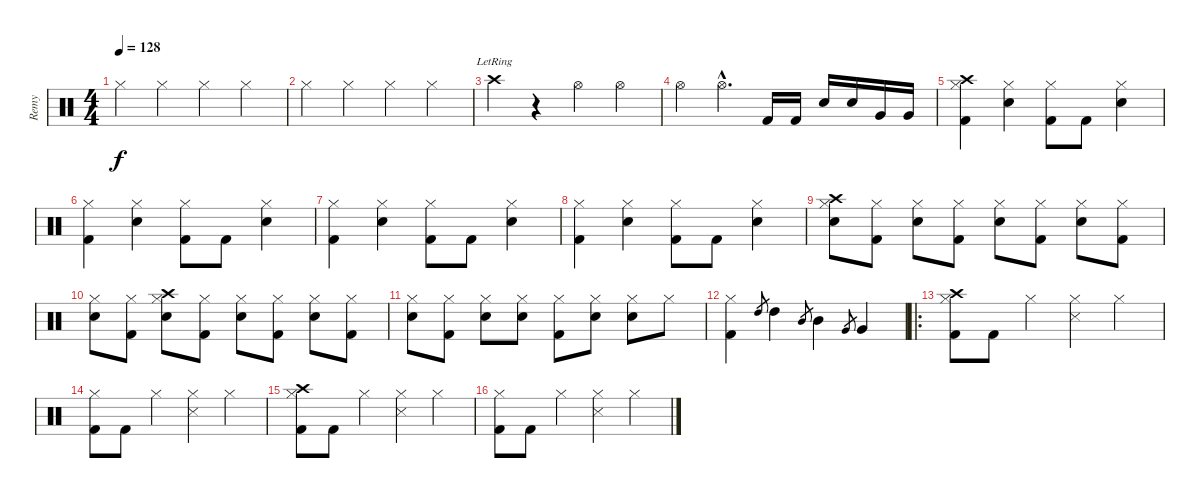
\track ("Remy" "Remy") {instrument percussion}
\staff {score}
\articulation defaults
\ts (4 4)
\tempo 128
\clef neutral
\ks c "Hi-Hat (closed)".4{dy f} "Hi-Hat (closed)".4 "Hi-Hat (closed)".4 "Hi-Hat (closed)".4
|
"Hi-Hat (closed)".4 "Hi-Hat (closed)".4 "Hi-Hat (closed)".4 "Hi-Hat (closed)".4 |
"Crash high (hit)"{lr}.4 r.4 "Hi-Hat (open)".4 "Hi-Hat (open)".4 |
"Hi-Hat (open)".4 "Hi-Hat (open)"{hac}.4{d} "Kick (hit) 2".16 "Kick (hit) 2".16 "Snare (hit) 2".16 "Snare (hit) 2".16 "Very Low Tom (hit)".16 "Very Low Tom (hit)".16 |
("Crash high (hit)" "Hi-Hat (closed)" "Kick (hit) 2").4 ("Snare (hit) 2" "Hi-Hat (closed)").4 ("Hi-Hat (closed)" "Kick (hit) 2").8 "Kick (hit) 2".8 ("Snare (hit) 2" "Hi-Hat (closed)").4 |
("Hi-Hat (closed)" "Kick (hit) 2").4 ("Snare (hit) 2" "Hi-Hat (closed)").4 ("Hi-Hat (closed)" "Kick (hit) 2").8 "Kick (hit) 2".8 ("Snare (hit) 2" "Hi-Hat (closed)").4 |
("Hi-Hat (closed)" "Kick (hit) 2").4 ("Snare (hit) 2" "Hi-Hat (closed)").4 ("Hi-Hat (closed)" "Kick (hit) 2").8 "Kick (hit) 2".8 ("Snare (hit) 2" "Hi-Hat (closed)").4 |
("Hi-Hat (closed)" "Kick (hit) 2").4 ("Snare (hit) 2" "Hi-Hat (closed)").4 ("Hi-Hat (closed)" "Kick (hit) 2").8 "Kick (hit) 2".8 ("Snare (hit) 2" "Hi-Hat (closed)").4 |
("Crash high (hit)" "Snare (hit) 2" "Hi-Hat (closed)").8 ("Hi-Hat (closed)" "Kick (hit) 2").8 ("Snare (hit) 2" "Hi-Hat (closed)").8 ("Hi-Hat (closed)" "Kick (hit) 2").8 ("Snare (hit) 2" "Hi-Hat (closed)").8 ("Hi-Hat (closed)" "Kick (hit) 2").8 ("Snare (hit) 2" "Hi-Hat (closed)").8 ("Hi-Hat (closed)" "Kick (hit) 2").8 |
("Snare (hit) 2" "Hi-Hat (closed)").8 ("Hi-Hat (closed)" "Kick (hit) 2").8 ("Crash high (hit)" "Snare (hit) 2" "Hi-Hat (closed)").8 ("Hi-Hat (closed)" "Kick (hit) 2").8 ("Snare (hit) 2" "Hi-Hat (closed)").8 ("Hi-Hat (closed)" "Kick (hit) 2").8 ("Snare (hit) 2" "Hi-Hat (closed)").8 ("Hi-Hat (closed)" "Kick (hit) 2").8 |
("Snare (hit) 2" "Hi-Hat (closed)").8 ("Hi-Hat (closed)" "Kick (hit) 2").8 ("Snare (hit) 2" "Hi-Hat (closed)").8 ("Snare (hit) 2" "Hi-Hat (closed)").8 ("Hi-Hat (closed)" "Kick (hit) 2").8 ("Snare (hit) 2" "Hi-Hat (closed)").8 ("Snare (hit) 2" "Hi-Hat (closed)").8 "Hi-Hat (closed)".8 |
("Hi-Hat (closed)" "Kick (hit) 2").4 "High Tom (hit)".8{gr} "High Tom (hit)".4 "Mid Tom (hit)".8{gr} "Mid Tom (hit)".4 "Very Low Tom (hit)".8{gr} "Very Low Tom (hit)".4 |
\ro
("Kick (hit) 2" "Hi-Hat (closed)" "Crash high (hit)").8 "Kick (hit) 2".8 "Hi-Hat (closed)".4 ("Snare (side stick) 3" "Hi-Hat (closed)").4 "Hi-Hat (closed)".4 |
("Kick (hit) 2" "Hi-Hat (closed)").8 "Kick (hit) 2".8 "Hi-Hat (closed)".4 ("Snare (side stick) 3" "Hi-Hat (closed)").4 "Hi-Hat (closed)".4 |
("Kick (hit) 2" "Hi-Hat (closed)" "Crash high (hit)").8 "Kick (hit) 2".8 "Hi-Hat (closed)".4 ("Snare (side stick) 3" "Hi-Hat (closed)").4 "Hi-Hat (closed)".4 |
("Kick (hit) 2" "Hi-Hat (closed)").8 "Kick (hit) 2".8 "Hi-Hat (closed)".4 ("Snare (side stick) 3" "Hi-Hat (closed)").4 "Hi-Hat (closed)".4
